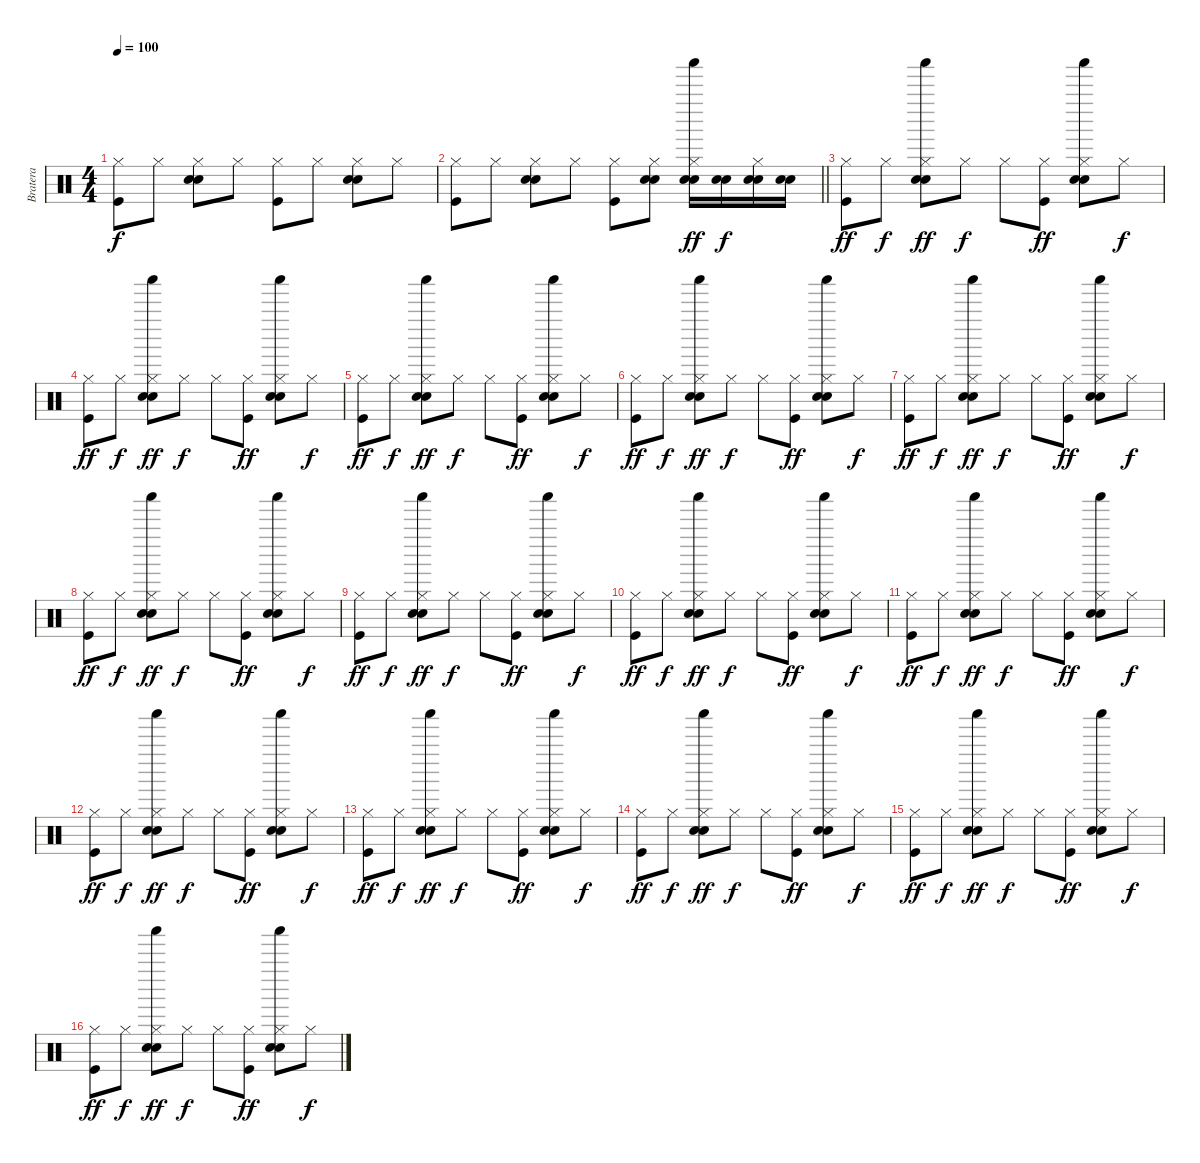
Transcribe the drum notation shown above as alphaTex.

\track ("Bratera" "Bratera") {instrument percussion}
\staff {score}
\articulation defaults
\ts (4 4)
\tempo 100
\clef neutral
\ks c
("Hi-Hat (closed)" "Kick (hit)").8{dy f} "Hi-Hat (closed)".8 ("Hi-Hat (closed)" "Snare (hit) 2" "Electric Snare (hit)").8 "Hi-Hat (closed)".8 ("Hi-Hat (closed)" "Kick (hit)").8 "Hi-Hat (closed)".8 ("Hi-Hat (closed)" "Snare (hit) 2" "Electric Snare (hit)").8 "Hi-Hat (closed)".8 |
\barLineRight lightlight
("Hi-Hat (closed)" "Kick (hit)").8 "Hi-Hat (closed)".8 ("Hi-Hat (closed)" "Snare (hit) 2" "Electric Snare (hit)").8 "Hi-Hat (closed)".8 ("Hi-Hat (closed)" "Kick (hit)").8 ("Hi-Hat (closed)" "Snare (hit) 2" "Electric Snare (hit)").8 ("Hi-Hat (closed)" "Shaker (hit)" "Snare (hit) 2" "Electric Snare (hit)").16{dy ff} ("Snare (hit) 2" "Electric Snare (hit)").16{dy f} ("Hi-Hat (closed)" "Snare (hit) 2" "Electric Snare (hit)").16 ("Snare (hit) 2" "Electric Snare (hit)").16 |
("Hi-Hat (closed)" "Kick (hit)").8{dy ff} "Hi-Hat (closed)".8{dy f} ("Hi-Hat (closed)" "Shaker (hit)" "Snare (hit) 2" "Electric Snare (hit)").8{dy ff} "Hi-Hat (closed)".8{dy f} "Hi-Hat (closed)".8 ("Hi-Hat (closed)" "Kick (hit)").8{dy ff} ("Hi-Hat (closed)" "Shaker (hit)" "Snare (hit) 2" "Electric Snare (hit)").8 "Hi-Hat (closed)".8{dy f} |
("Hi-Hat (closed)" "Kick (hit)").8{dy ff} "Hi-Hat (closed)".8{dy f} ("Hi-Hat (closed)" "Shaker (hit)" "Snare (hit) 2" "Electric Snare (hit)").8{dy ff} "Hi-Hat (closed)".8{dy f} "Hi-Hat (closed)".8 ("Hi-Hat (closed)" "Kick (hit)").8{dy ff} ("Hi-Hat (closed)" "Shaker (hit)" "Snare (hit) 2" "Electric Snare (hit)").8 "Hi-Hat (closed)".8{dy f} |
("Hi-Hat (closed)" "Kick (hit)").8{dy ff} "Hi-Hat (closed)".8{dy f} ("Hi-Hat (closed)" "Shaker (hit)" "Snare (hit) 2" "Electric Snare (hit)").8{dy ff} "Hi-Hat (closed)".8{dy f} "Hi-Hat (closed)".8 ("Hi-Hat (closed)" "Kick (hit)").8{dy ff} ("Hi-Hat (closed)" "Shaker (hit)" "Snare (hit) 2" "Electric Snare (hit)").8 "Hi-Hat (closed)".8{dy f} |
("Hi-Hat (closed)" "Kick (hit)").8{dy ff} "Hi-Hat (closed)".8{dy f} ("Hi-Hat (closed)" "Shaker (hit)" "Snare (hit) 2" "Electric Snare (hit)").8{dy ff} "Hi-Hat (closed)".8{dy f} "Hi-Hat (closed)".8 ("Hi-Hat (closed)" "Kick (hit)").8{dy ff} ("Hi-Hat (closed)" "Shaker (hit)" "Snare (hit) 2" "Electric Snare (hit)").8 "Hi-Hat (closed)".8{dy f} |
("Hi-Hat (closed)" "Kick (hit)").8{dy ff} "Hi-Hat (closed)".8{dy f} ("Hi-Hat (closed)" "Shaker (hit)" "Snare (hit) 2" "Electric Snare (hit)").8{dy ff} "Hi-Hat (closed)".8{dy f} "Hi-Hat (closed)".8 ("Hi-Hat (closed)" "Kick (hit)").8{dy ff} ("Hi-Hat (closed)" "Shaker (hit)" "Snare (hit) 2" "Electric Snare (hit)").8 "Hi-Hat (closed)".8{dy f} |
("Hi-Hat (closed)" "Kick (hit)").8{dy ff} "Hi-Hat (closed)".8{dy f} ("Hi-Hat (closed)" "Shaker (hit)" "Snare (hit) 2" "Electric Snare (hit)").8{dy ff} "Hi-Hat (closed)".8{dy f} "Hi-Hat (closed)".8 ("Hi-Hat (closed)" "Kick (hit)").8{dy ff} ("Hi-Hat (closed)" "Shaker (hit)" "Snare (hit) 2" "Electric Snare (hit)").8 "Hi-Hat (closed)".8{dy f} |
("Hi-Hat (closed)" "Kick (hit)").8{dy ff} "Hi-Hat (closed)".8{dy f} ("Hi-Hat (closed)" "Shaker (hit)" "Snare (hit) 2" "Electric Snare (hit)").8{dy ff} "Hi-Hat (closed)".8{dy f} "Hi-Hat (closed)".8 ("Hi-Hat (closed)" "Kick (hit)").8{dy ff} ("Hi-Hat (closed)" "Shaker (hit)" "Snare (hit) 2" "Electric Snare (hit)").8 "Hi-Hat (closed)".8{dy f} |
("Hi-Hat (closed)" "Kick (hit)").8{dy ff} "Hi-Hat (closed)".8{dy f} ("Hi-Hat (closed)" "Shaker (hit)" "Snare (hit) 2" "Electric Snare (hit)").8{dy ff} "Hi-Hat (closed)".8{dy f} "Hi-Hat (closed)".8 ("Hi-Hat (closed)" "Kick (hit)").8{dy ff} ("Hi-Hat (closed)" "Shaker (hit)" "Snare (hit) 2" "Electric Snare (hit)").8 "Hi-Hat (closed)".8{dy f} |
("Hi-Hat (closed)" "Kick (hit)").8{dy ff} "Hi-Hat (closed)".8{dy f} ("Hi-Hat (closed)" "Shaker (hit)" "Snare (hit) 2" "Electric Snare (hit)").8{dy ff} "Hi-Hat (closed)".8{dy f} "Hi-Hat (closed)".8 ("Hi-Hat (closed)" "Kick (hit)").8{dy ff} ("Hi-Hat (closed)" "Shaker (hit)" "Snare (hit) 2" "Electric Snare (hit)").8 "Hi-Hat (closed)".8{dy f} |
("Hi-Hat (closed)" "Kick (hit)").8{dy ff} "Hi-Hat (closed)".8{dy f} ("Hi-Hat (closed)" "Shaker (hit)" "Snare (hit) 2" "Electric Snare (hit)").8{dy ff} "Hi-Hat (closed)".8{dy f} "Hi-Hat (closed)".8 ("Hi-Hat (closed)" "Kick (hit)").8{dy ff} ("Hi-Hat (closed)" "Shaker (hit)" "Snare (hit) 2" "Electric Snare (hit)").8 "Hi-Hat (closed)".8{dy f} |
("Hi-Hat (closed)" "Kick (hit)").8{dy ff} "Hi-Hat (closed)".8{dy f} ("Hi-Hat (closed)" "Shaker (hit)" "Snare (hit) 2" "Electric Snare (hit)").8{dy ff} "Hi-Hat (closed)".8{dy f} "Hi-Hat (closed)".8 ("Hi-Hat (closed)" "Kick (hit)").8{dy ff} ("Hi-Hat (closed)" "Shaker (hit)" "Snare (hit) 2" "Electric Snare (hit)").8 "Hi-Hat (closed)".8{dy f} |
("Hi-Hat (closed)" "Kick (hit)").8{dy ff} "Hi-Hat (closed)".8{dy f} ("Hi-Hat (closed)" "Shaker (hit)" "Snare (hit) 2" "Electric Snare (hit)").8{dy ff} "Hi-Hat (closed)".8{dy f} "Hi-Hat (closed)".8 ("Hi-Hat (closed)" "Kick (hit)").8{dy ff} ("Hi-Hat (closed)" "Shaker (hit)" "Snare (hit) 2" "Electric Snare (hit)").8 "Hi-Hat (closed)".8{dy f} |
("Hi-Hat (closed)" "Kick (hit)").8{dy ff} "Hi-Hat (closed)".8{dy f} ("Hi-Hat (closed)" "Shaker (hit)" "Snare (hit) 2" "Electric Snare (hit)").8{dy ff} "Hi-Hat (closed)".8{dy f} "Hi-Hat (closed)".8 ("Hi-Hat (closed)" "Kick (hit)").8{dy ff} ("Hi-Hat (closed)" "Shaker (hit)" "Snare (hit) 2" "Electric Snare (hit)").8 "Hi-Hat (closed)".8{dy f} |
("Hi-Hat (closed)" "Kick (hit)").8{dy ff} "Hi-Hat (closed)".8{dy f} ("Hi-Hat (closed)" "Shaker (hit)" "Snare (hit) 2" "Electric Snare (hit)").8{dy ff} "Hi-Hat (closed)".8{dy f} "Hi-Hat (closed)".8 ("Hi-Hat (closed)" "Kick (hit)").8{dy ff} ("Hi-Hat (closed)" "Shaker (hit)" "Snare (hit) 2" "Electric Snare (hit)").8 "Hi-Hat (closed)".8{dy f}
